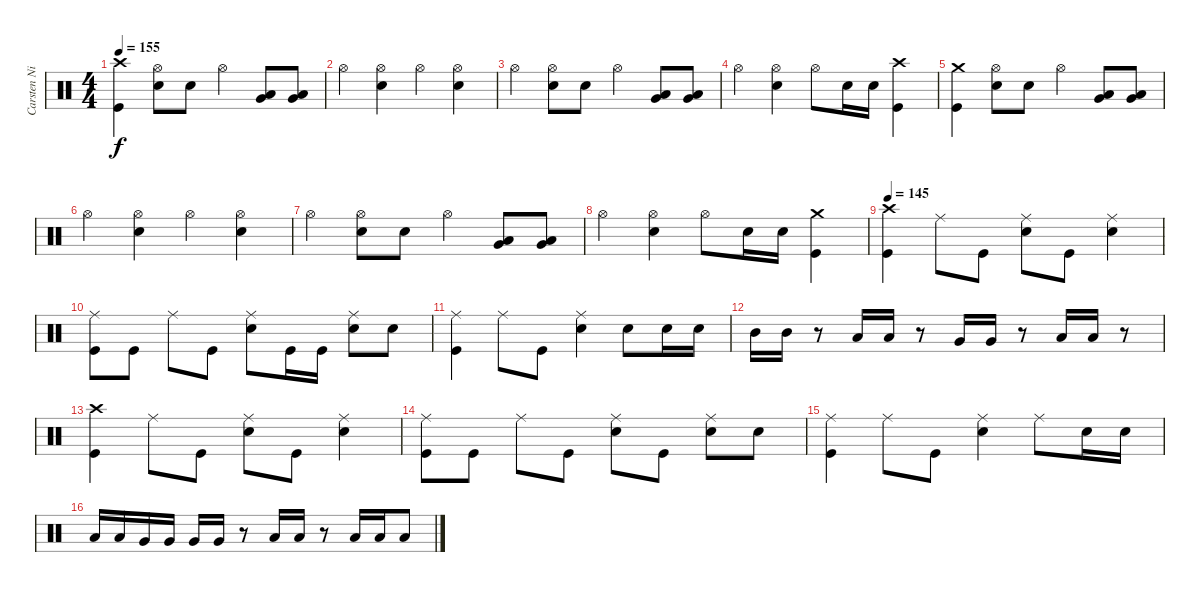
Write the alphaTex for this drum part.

\track ("Carsten Nielsen" "Carsten Ni") {instrument percussion}
\staff {score}
\articulation defaults
\ts (4 4)
\tempo 155
\clef neutral
\ks c
("Crash high (hit)" "Kick (hit)").4{dy f} ("Hi-Hat (open)" "Electric Snare (hit)").8 "Electric Snare (hit)".8 "Hi-Hat (open)".4 ("Very Low Tom (hit)" "Low Tom (hit)").8 ("Very Low Tom (hit)" "Low Tom (hit)").8 |
"Hi-Hat (open)".4 ("Hi-Hat (open)" "Electric Snare (hit)").4 "Hi-Hat (open)".4 ("Hi-Hat (open)" "Electric Snare (hit)").4 |
"Hi-Hat (open)".4 ("Hi-Hat (open)" "Electric Snare (hit)").8 "Electric Snare (hit)".8 "Hi-Hat (open)".4 ("Very Low Tom (hit)" "Low Tom (hit)").8 ("Very Low Tom (hit)" "Low Tom (hit)").8 |
"Hi-Hat (open)".4 ("Hi-Hat (open)" "Electric Snare (hit)").4 "Hi-Hat (open)".8 "Electric Snare (hit)".16 "Electric Snare (hit)".16 ("Crash high (hit)" "Kick (hit)").4 |
("Crash medium (hit)" "Kick (hit)").4 ("Hi-Hat (open)" "Electric Snare (hit)").8 "Electric Snare (hit)".8 "Hi-Hat (open)".4 ("Very Low Tom (hit)" "Low Tom (hit)").8 ("Very Low Tom (hit)" "Low Tom (hit)").8 |
"Hi-Hat (open)".4 ("Hi-Hat (open)" "Electric Snare (hit)").4 "Hi-Hat (open)".4 ("Hi-Hat (open)" "Electric Snare (hit)").4 |
"Hi-Hat (open)".4 ("Hi-Hat (open)" "Electric Snare (hit)").8 "Electric Snare (hit)".8 "Hi-Hat (open)".4 ("Very Low Tom (hit)" "Low Tom (hit)").8 ("Very Low Tom (hit)" "Low Tom (hit)").8 |
"Hi-Hat (open)".4 ("Hi-Hat (open)" "Electric Snare (hit)").4 "Hi-Hat (open)".8 "Electric Snare (hit)".16 "Electric Snare (hit)".16 ("Crash medium (hit)" "Kick (hit)").4 |
\tempo 145
("Crash high (hit)" "Kick (hit)").4 "Ride (middle)".8 "Kick (hit)".8 ("Ride (middle)" "Electric Snare (hit)").8 "Kick (hit)".8 ("Ride (middle)" "Electric Snare (hit)").4 |
("Ride (middle)" "Kick (hit)").8 "Kick (hit)".8 "Ride (middle)".8 "Kick (hit)".8 ("Ride (middle)" "Electric Snare (hit)").8 "Kick (hit)".16 "Kick (hit)".16 ("Ride (middle)" "Electric Snare (hit)").8 "Electric Snare (hit)".8 |
("Ride (middle)" "Kick (hit)").4 "Ride (middle)".8 "Kick (hit)".8 ("Ride (middle)" "Electric Snare (hit)").4 "Electric Snare (hit)".8 "Electric Snare (hit)".16 "Electric Snare (hit)".16 |
"Mid Tom (hit)".16 "Mid Tom (hit)".16 r.8 "Low Tom (hit)".16 "Low Tom (hit)".16 r.8 "Very Low Tom (hit)".16 "Very Low Tom (hit)".16 r.8 "Low Floor Tom (hit)".16 "Low Floor Tom (hit)".16 r.8 |
("Crash high (hit)" "Kick (hit)").4 "Ride (middle)".8 "Kick (hit)".8 ("Ride (middle)" "Electric Snare (hit)").8 "Kick (hit)".8 ("Ride (middle)" "Electric Snare (hit)").4 |
("Ride (middle)" "Kick (hit)").8 "Kick (hit)".8 "Ride (middle)".8 "Kick (hit)".8 ("Ride (middle)" "Electric Snare (hit)").8 "Kick (hit)".8 ("Ride (middle)" "Electric Snare (hit)").8 "Electric Snare (hit)".8 |
("Ride (middle)" "Kick (hit)").4 "Ride (middle)".8 "Kick (hit)".8 ("Ride (middle)" "Electric Snare (hit)").4 "Ride (middle)".8 "Electric Snare (hit)".16 "Electric Snare (hit)".16 |
"Low Floor Tom (hit)".16 "Low Floor Tom (hit)".16 "Very Low Tom (hit)".16 "Very Low Tom (hit)".16 "Very Low Tom (hit)".16 "Very Low Tom (hit)".16 r.8 "Low Tom (hit)".16 "Low Tom (hit)".16 r.8 "Low Tom (hit)".16 "Low Tom (hit)".16 "Low Tom (hit)".8
